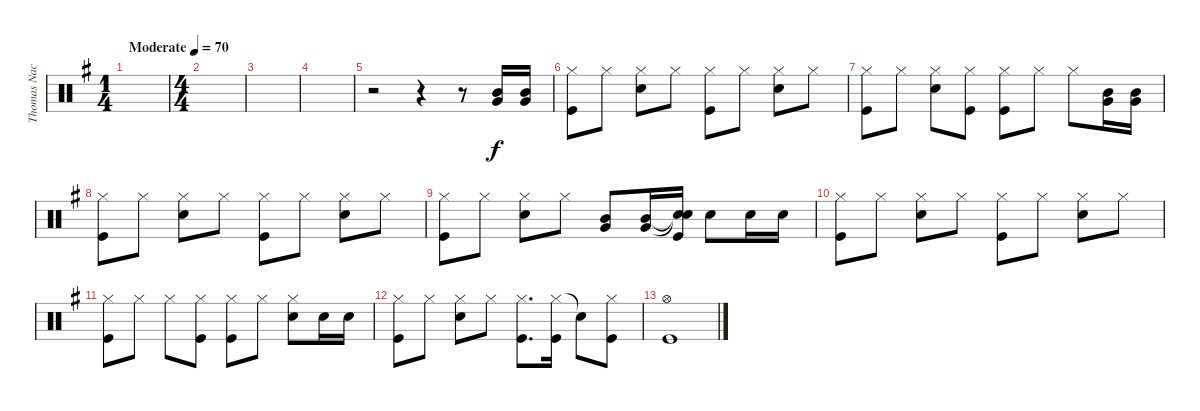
\track ("Thomas Nack" "Thomas Nac") {instrument percussion}
\staff {score}
\articulation defaults
\ts (1 4)
\tempo (70 "Moderate")
\clef neutral
\ks g
|
\ts (4 4)
|
|
|
r.2 r.4 r.8 ("Mid Tom (hit)" "Very Low Tom (hit)").16 ("Mid Tom (hit)" "Very Low Tom (hit)").16 |
("Hi-Hat (closed)" "Kick (hit)").8 "Hi-Hat (closed)".8 ("Hi-Hat (closed)" "Snare (hit) 2").8 "Hi-Hat (closed)".8 ("Hi-Hat (closed)" "Kick (hit)").8 "Hi-Hat (closed)".8 ("Hi-Hat (closed)" "Snare (hit) 2").8 "Hi-Hat (closed)".8 |
("Hi-Hat (closed)" "Kick (hit)").8 "Hi-Hat (closed)".8 ("Hi-Hat (closed)" "Snare (hit) 2").8 ("Hi-Hat (closed)" "Kick (hit)").8 ("Hi-Hat (closed)" "Kick (hit)").8 "Hi-Hat (closed)".8 "Hi-Hat (closed)".8 ("Mid Tom (hit)" "Very Low Tom (hit)").16 ("Mid Tom (hit)" "Very Low Tom (hit)").16 |
("Hi-Hat (closed)" "Kick (hit)").8 "Hi-Hat (closed)".8 ("Hi-Hat (closed)" "Snare (hit) 2").8 "Hi-Hat (closed)".8 ("Hi-Hat (closed)" "Kick (hit)").8 "Hi-Hat (closed)".8 ("Hi-Hat (closed)" "Snare (hit) 2").8 "Hi-Hat (closed)".8 |
("Hi-Hat (closed)" "Kick (hit)").8 "Hi-Hat (closed)".8 ("Hi-Hat (closed)" "Snare (hit) 2").8 "Hi-Hat (closed)".8 ("Mid Tom (hit)" "Very Low Tom (hit)").8 ("Mid Tom (hit)" "Very Low Tom (hit)").16 ("Snare (hit)"{t} "Snare (hit)"{t} "Kick (hit)").16 "Snare (hit) 2".8 "Snare (hit) 2".16 "Snare (hit) 2".16 |
("Hi-Hat (closed)" "Kick (hit)").8 "Hi-Hat (closed)".8 ("Hi-Hat (closed)" "Snare (hit) 2").8 "Hi-Hat (closed)".8 ("Hi-Hat (closed)" "Kick (hit)").8 "Hi-Hat (closed)".8 ("Hi-Hat (closed)" "Snare (hit) 2").8 "Hi-Hat (closed)".8 |
("Hi-Hat (closed)" "Kick (hit)").8 "Hi-Hat (closed)".8 "Hi-Hat (closed)".8 ("Hi-Hat (closed)" "Kick (hit)").8 ("Hi-Hat (closed)" "Kick (hit)").8 "Hi-Hat (closed)".8 ("Hi-Hat (closed)" "Snare (hit) 2").8 "Snare (hit) 2".16 "Snare (hit) 2".16 |
("Hi-Hat (closed)" "Kick (hit)").8 "Hi-Hat (closed)".8 ("Hi-Hat (closed)" "Snare (hit) 2").8 "Hi-Hat (closed)".8 ("Hi-Hat (closed)" "Kick (hit)").8{d} ("Hi-Hat (closed)" "Kick (hit)").16 "Snare (hit)"{t}.8 ("Hi-Hat (closed)" "Kick (hit)").8 |
("Hi-Hat (open)" "Kick (hit)").1
